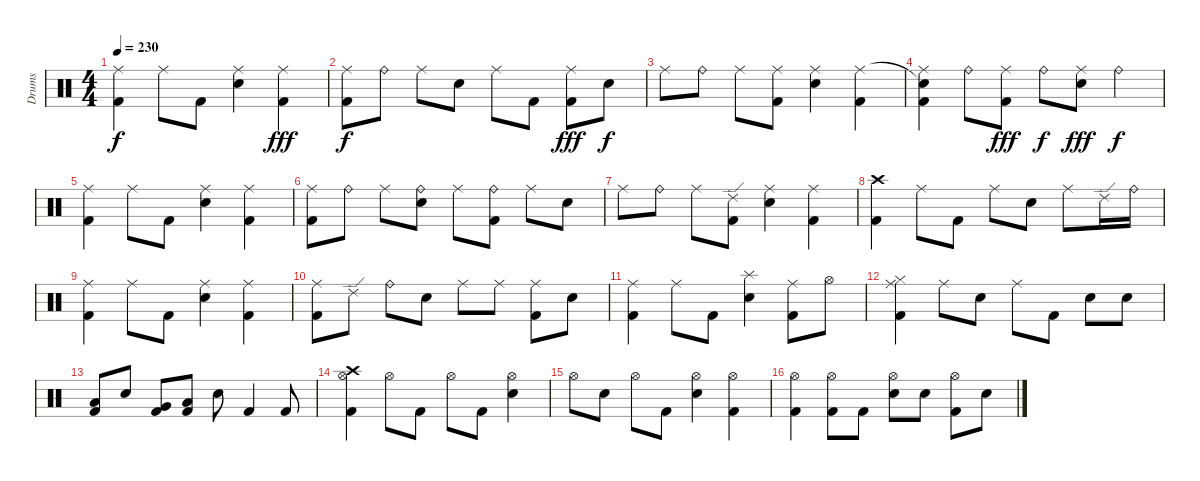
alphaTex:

\track ("Drums" "Drums") {instrument percussion}
\staff {score}
\articulation defaults
\ts (4 4)
\tempo 230
\clef neutral
\ks c
("Ride (middle)" "Kick (hit) 2").4{dy f} "Ride (middle)".8 "Kick (hit) 2".8 ("Ride (middle)" "Electric Snare (hit)").4 ("Ride (middle)" "Kick (hit) 2").4{dy fff} |
("Ride (middle)" "Kick (hit) 2").8{dy f} "Ride (bell)".8 "Ride (middle)".8 "Electric Snare (hit)".8 "Ride (middle)".8 "Kick (hit) 2".8 ("Ride (middle)" "Kick (hit) 2").8{dy fff} "Electric Snare (hit)".8{dy f} |
"Ride (middle)".8 "Ride (bell)".8 "Ride (middle)".8 ("Ride (middle)" "Kick (hit) 2").8 ("Ride (middle)" "Electric Snare (hit)").4 ("Ride (middle)" "Kick (hit) 2").4 |
("Snare (hit)"{t} "Ride (middle)" "Kick (hit) 2").4 "Ride (bell)".8 ("Ride (middle)" "Kick (hit) 2").8{dy fff} "Ride (bell)".8{dy f} ("Ride (middle)" "Electric Snare (hit)").8{dy fff} "Ride (bell)".4{dy f} |
("Ride (middle)" "Kick (hit) 2").4 "Ride (middle)".8 "Kick (hit) 2".8 ("Ride (middle)" "Electric Snare (hit)").4 ("Ride (middle)" "Kick (hit) 2").4 |
("Ride (middle)" "Kick (hit) 2").8 "Ride (bell)".8 "Ride (middle)".8 ("Ride (bell)" "Electric Snare (hit)").8 "Ride (middle)".8 ("Ride (bell)" "Kick (hit) 2").8 "Ride (middle)".8 "Electric Snare (hit)".8 |
"Ride (middle)".8 "Ride (bell)".8 "Ride (middle)".8 ("Ride (edge) 2" "Kick (hit) 2").8 ("Ride (middle)" "Electric Snare (hit)").4 ("Ride (middle)" "Kick (hit) 2").4 |
("Crash high (hit)" "Kick (hit) 2").4 "Ride (middle)".8 "Kick (hit) 2".8 "Ride (middle)".8 "Electric Snare (hit)".8 "Ride (middle)".8 "Ride (edge) 2".16 "Ride (bell)".16 |
("Ride (middle)" "Kick (hit) 2").4 "Ride (middle)".8 "Kick (hit) 2".8 ("Ride (middle)" "Electric Snare (hit)").4 ("Ride (middle)" "Kick (hit) 2").4 |
("Ride (middle)" "Kick (hit) 2").8 "Ride (edge) 2".8 "Ride (bell)".8 "Electric Snare (hit)".8 "Ride (middle)".8 "Ride (middle)".8 ("Ride (middle)" "Kick (hit) 2").8 "Electric Snare (hit)".8 |
("Ride (middle)" "Kick (hit) 2").4 "Ride (middle)".8 "Kick (hit) 2".8 ("Splash (hit)" "Electric Snare (hit)").4 ("Ride (middle)" "Kick (hit) 2").8 "Hi-Hat (open)".8 |
("Ride (middle)" "Hi-Hat (closed)" "Kick (hit) 2").4 "Ride (middle)".8 "Electric Snare (hit)".8 "Ride (middle)".8 "Kick (hit) 2".8 "Electric Snare (hit)".8 "Electric Snare (hit)".8 |
("Low Floor Tom (hit)" "Kick (hit) 2").8 "Electric Snare (hit)".8 ("Very Low Tom (hit)" "Kick (hit) 2").8 ("Low Floor Tom (hit)" "Kick (hit) 2").8 "Electric Snare (hit)".8 "Kick (hit) 2".4 "Kick (hit) 2".8 |
("Crash high (hit)" "Hi-Hat (open)" "Kick (hit) 2").4 "Hi-Hat (open)".8 "Kick (hit) 2".8 "Hi-Hat (open)".8 "Kick (hit) 2".8 ("Hi-Hat (open)" "Electric Snare (hit)").4 |
"Hi-Hat (open)".8 "Electric Snare (hit)".8 "Hi-Hat (open)".8 "Kick (hit) 2".8 ("Hi-Hat (open)" "Electric Snare (hit)").4 ("Hi-Hat (open)" "Kick (hit) 2").4 |
("Hi-Hat (open)" "Kick (hit) 2").4 ("Hi-Hat (open)" "Kick (hit) 2").8 "Kick (hit) 2".8 ("Hi-Hat (open)" "Electric Snare (hit)").8 "Electric Snare (hit)".8 ("Hi-Hat (open)" "Kick (hit) 2").8 "Electric Snare (hit)".8
